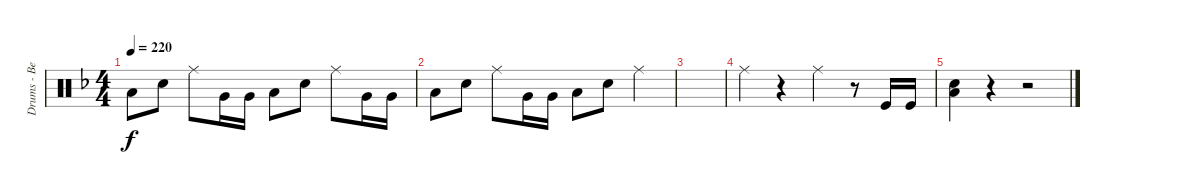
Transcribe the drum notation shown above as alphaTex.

\track ("Drums - Ben Johnston" "Drums - Be") {instrument percussion}
\staff {score}
\articulation defaults
\ts (4 4)
\tempo 220
\clef neutral
\ks dminor "Low Floor Tom (hit)".8{dy f} "Snare (hit) 2".8 "Ride (middle)".8 "Very Low Tom (hit)".16 "Very Low Tom (hit)".16 "Low Floor Tom (hit)".8 "Snare (hit) 2".8 "Ride (middle)".8 "Very Low Tom (hit)".16 "Very Low Tom (hit)".16
|
"Low Floor Tom (hit)".8 "Snare (hit) 2".8 "Ride (middle)".8 "Very Low Tom (hit)".16 "Very Low Tom (hit)".16 "Low Floor Tom (hit)".8 "Snare (hit) 2".8 "Ride (middle)".4 |
|
"Ride (middle)".4 r.4 "Ride (middle)".4 r.8 "Kick (hit)".16 "Kick (hit)".16 |
("Low Floor Tom (hit)" "Snare (hit) 2").4 r.4 r.2
